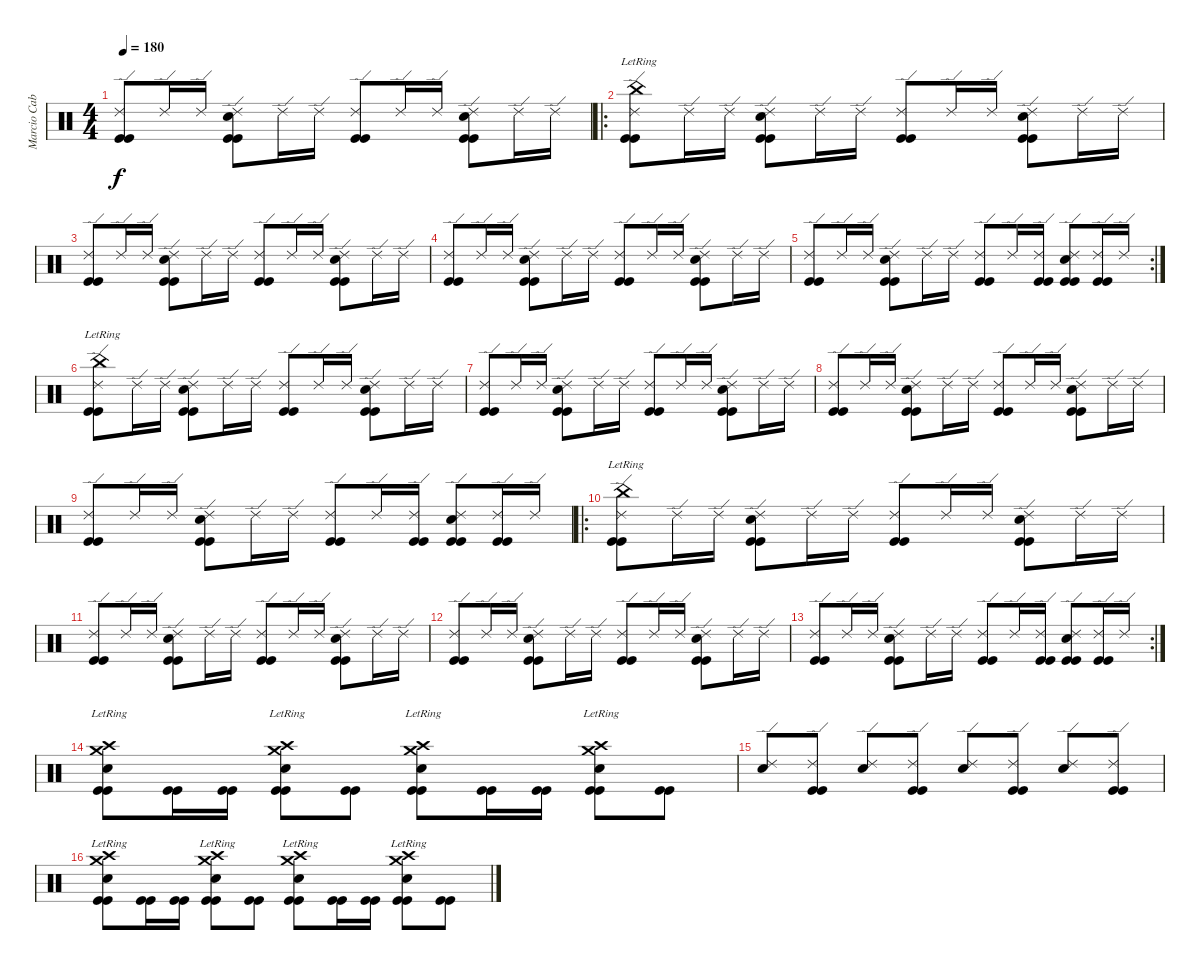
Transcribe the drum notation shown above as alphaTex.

\track ("Marcio Cabrita" "Marcio Cab") {instrument percussion}
\staff {score}
\articulation defaults
\ts (4 4)
\tempo 180
\clef neutral
\ks c
("Ride (edge) 2" "Kick (hit)" "Kick (hit)").8{dy f} "Ride (edge) 2".16 "Ride (edge) 2".16 ("Snare (hit) 2" "Ride (edge) 2" "Kick (hit)" "Kick (hit)").8 "Ride (edge) 2".16 "Ride (edge) 2".16 ("Ride (edge) 2" "Kick (hit)" "Kick (hit)").8 "Ride (edge) 2".16 "Ride (edge) 2".16 ("Snare (hit) 2" "Ride (edge) 2" "Kick (hit)" "Kick (hit)").8 "Ride (edge) 2".16 "Ride (edge) 2".16 |
\ro
("China (hit)"{lr} "Ride (edge) 2" "Kick (hit)" "Kick (hit)").8 "Ride (edge) 2".16 "Ride (edge) 2".16 ("Snare (hit) 2" "Ride (edge) 2" "Kick (hit)" "Kick (hit)").8 "Ride (edge) 2".16 "Ride (edge) 2".16 ("Ride (edge) 2" "Kick (hit)" "Kick (hit)").8 "Ride (edge) 2".16 "Ride (edge) 2".16 ("Snare (hit) 2" "Ride (edge) 2" "Kick (hit)" "Kick (hit)").8 "Ride (edge) 2".16 "Ride (edge) 2".16 |
("Ride (edge) 2" "Kick (hit)" "Kick (hit)").8 "Ride (edge) 2".16 "Ride (edge) 2".16 ("Snare (hit) 2" "Ride (edge) 2" "Kick (hit)" "Kick (hit)").8 "Ride (edge) 2".16 "Ride (edge) 2".16 ("Ride (edge) 2" "Kick (hit)" "Kick (hit)").8 "Ride (edge) 2".16 "Ride (edge) 2".16 ("Snare (hit) 2" "Ride (edge) 2" "Kick (hit)" "Kick (hit)").8 "Ride (edge) 2".16 "Ride (edge) 2".16 |
("Ride (edge) 2" "Kick (hit)" "Kick (hit)").8 "Ride (edge) 2".16 "Ride (edge) 2".16 ("Snare (hit) 2" "Ride (edge) 2" "Kick (hit)" "Kick (hit)").8 "Ride (edge) 2".16 "Ride (edge) 2".16 ("Ride (edge) 2" "Kick (hit)" "Kick (hit)").8 "Ride (edge) 2".16 "Ride (edge) 2".16 ("Snare (hit) 2" "Ride (edge) 2" "Kick (hit)" "Kick (hit)").8 "Ride (edge) 2".16 "Ride (edge) 2".16 |
\rc 2
("Ride (edge) 2" "Kick (hit)" "Kick (hit)").8 "Ride (edge) 2".16 "Ride (edge) 2".16 ("Snare (hit) 2" "Ride (edge) 2" "Kick (hit)" "Kick (hit)").8 "Ride (edge) 2".16 "Ride (edge) 2".16 ("Ride (edge) 2" "Kick (hit)" "Kick (hit)").8 "Ride (edge) 2".16 ("Ride (edge) 2" "Kick (hit)" "Kick (hit)").16 ("Snare (hit) 2" "Ride (edge) 2" "Kick (hit)" "Kick (hit)").8 ("Ride (edge) 2" "Kick (hit)" "Kick (hit)").16 "Ride (edge) 2".16 |
("China (hit)"{lr} "Ride (edge) 2" "Kick (hit)" "Kick (hit)").8 "Ride (edge) 2".16 "Ride (edge) 2".16 ("Snare (hit) 2" "Ride (edge) 2" "Kick (hit)" "Kick (hit)").8 "Ride (edge) 2".16 "Ride (edge) 2".16 ("Ride (edge) 2" "Kick (hit)" "Kick (hit)").8 "Ride (edge) 2".16 "Ride (edge) 2".16 ("Snare (hit) 2" "Ride (edge) 2" "Kick (hit)" "Kick (hit)").8 "Ride (edge) 2".16 "Ride (edge) 2".16 |
("Ride (edge) 2" "Kick (hit)" "Kick (hit)").8 "Ride (edge) 2".16 "Ride (edge) 2".16 ("Snare (hit) 2" "Ride (edge) 2" "Kick (hit)" "Kick (hit)").8 "Ride (edge) 2".16 "Ride (edge) 2".16 ("Ride (edge) 2" "Kick (hit)" "Kick (hit)").8 "Ride (edge) 2".16 "Ride (edge) 2".16 ("Snare (hit) 2" "Ride (edge) 2" "Kick (hit)" "Kick (hit)").8 "Ride (edge) 2".16 "Ride (edge) 2".16 |
("Ride (edge) 2" "Kick (hit)" "Kick (hit)").8 "Ride (edge) 2".16 "Ride (edge) 2".16 ("Snare (hit) 2" "Ride (edge) 2" "Kick (hit)" "Kick (hit)").8 "Ride (edge) 2".16 "Ride (edge) 2".16 ("Ride (edge) 2" "Kick (hit)" "Kick (hit)").8 "Ride (edge) 2".16 "Ride (edge) 2".16 ("Snare (hit) 2" "Ride (edge) 2" "Kick (hit)" "Kick (hit)").8 "Ride (edge) 2".16 "Ride (edge) 2".16 |
("Ride (edge) 2" "Kick (hit)" "Kick (hit)").8 "Ride (edge) 2".16 "Ride (edge) 2".16 ("Snare (hit) 2" "Ride (edge) 2" "Kick (hit)" "Kick (hit)").8 "Ride (edge) 2".16 "Ride (edge) 2".16 ("Ride (edge) 2" "Kick (hit)" "Kick (hit)").8 "Ride (edge) 2".16 ("Ride (edge) 2" "Kick (hit)" "Kick (hit)").16 ("Snare (hit) 2" "Ride (edge) 2" "Kick (hit)" "Kick (hit)").8 ("Ride (edge) 2" "Kick (hit)" "Kick (hit)").16 "Ride (edge) 2".16 |
\ro
("China (hit)"{lr} "Ride (edge) 2" "Kick (hit)" "Kick (hit)").8 "Ride (edge) 2".16 "Ride (edge) 2".16 ("Snare (hit) 2" "Ride (edge) 2" "Kick (hit)" "Kick (hit)").8 "Ride (edge) 2".16 "Ride (edge) 2".16 ("Ride (edge) 2" "Kick (hit)" "Kick (hit)").8 "Ride (edge) 2".16 "Ride (edge) 2".16 ("Snare (hit) 2" "Ride (edge) 2" "Kick (hit)" "Kick (hit)").8 "Ride (edge) 2".16 "Ride (edge) 2".16 |
("Ride (edge) 2" "Kick (hit)" "Kick (hit)").8 "Ride (edge) 2".16 "Ride (edge) 2".16 ("Snare (hit) 2" "Ride (edge) 2" "Kick (hit)" "Kick (hit)").8 "Ride (edge) 2".16 "Ride (edge) 2".16 ("Ride (edge) 2" "Kick (hit)" "Kick (hit)").8 "Ride (edge) 2".16 "Ride (edge) 2".16 ("Snare (hit) 2" "Ride (edge) 2" "Kick (hit)" "Kick (hit)").8 "Ride (edge) 2".16 "Ride (edge) 2".16 |
("Ride (edge) 2" "Kick (hit)" "Kick (hit)").8 "Ride (edge) 2".16 "Ride (edge) 2".16 ("Snare (hit) 2" "Ride (edge) 2" "Kick (hit)" "Kick (hit)").8 "Ride (edge) 2".16 "Ride (edge) 2".16 ("Ride (edge) 2" "Kick (hit)" "Kick (hit)").8 "Ride (edge) 2".16 "Ride (edge) 2".16 ("Snare (hit) 2" "Ride (edge) 2" "Kick (hit)" "Kick (hit)").8 "Ride (edge) 2".16 "Ride (edge) 2".16 |
\rc 2
("Ride (edge) 2" "Kick (hit)" "Kick (hit)").8 "Ride (edge) 2".16 "Ride (edge) 2".16 ("Snare (hit) 2" "Ride (edge) 2" "Kick (hit)" "Kick (hit)").8 "Ride (edge) 2".16 "Ride (edge) 2".16 ("Ride (edge) 2" "Kick (hit)" "Kick (hit)").8 "Ride (edge) 2".16 ("Ride (edge) 2" "Kick (hit)" "Kick (hit)").16 ("Snare (hit) 2" "Ride (edge) 2" "Kick (hit)" "Kick (hit)").8 ("Ride (edge) 2" "Kick (hit)" "Kick (hit)").16 "Ride (edge) 2".16 |
("Crash high (hit)"{lr} "Crash medium (hit)"{lr} "Snare (hit) 2" "Kick (hit)" "Kick (hit)").8 ("Kick (hit)" "Kick (hit)").16 ("Kick (hit)" "Kick (hit)").16 ("Crash high (hit)"{lr} "Crash medium (hit)"{lr} "Snare (hit) 2" "Kick (hit)" "Kick (hit)").8 ("Kick (hit)" "Kick (hit)").8 ("Crash high (hit)"{lr} "Crash medium (hit)"{lr} "Snare (hit) 2" "Kick (hit)" "Kick (hit)").8 ("Kick (hit)" "Kick (hit)").16 ("Kick (hit)" "Kick (hit)").16 ("Crash high (hit)"{lr} "Crash medium (hit)"{lr} "Snare (hit) 2" "Kick (hit)" "Kick (hit)").8 ("Kick (hit)" "Kick (hit)").8 |
("Snare (hit) 2" "Ride (edge) 2").8 ("Ride (edge) 2" "Kick (hit)" "Kick (hit)").8 ("Snare (hit) 2" "Ride (edge) 2").8 ("Ride (edge) 2" "Kick (hit)" "Kick (hit)").8 ("Snare (hit) 2" "Ride (edge) 2").8 ("Ride (edge) 2" "Kick (hit)" "Kick (hit)").8 ("Snare (hit) 2" "Ride (edge) 2").8 ("Ride (edge) 2" "Kick (hit)" "Kick (hit)").8 |
("Crash high (hit)"{lr} "Crash medium (hit)"{lr} "Snare (hit) 2" "Kick (hit)" "Kick (hit)").8 ("Kick (hit)" "Kick (hit)").16 ("Kick (hit)" "Kick (hit)").16 ("Crash high (hit)"{lr} "Crash medium (hit)"{lr} "Snare (hit) 2" "Kick (hit)" "Kick (hit)").8 ("Kick (hit)" "Kick (hit)").8 ("Crash high (hit)"{lr} "Crash medium (hit)"{lr} "Snare (hit) 2" "Kick (hit)" "Kick (hit)").8 ("Kick (hit)" "Kick (hit)").16 ("Kick (hit)" "Kick (hit)").16 ("Crash high (hit)"{lr} "Crash medium (hit)"{lr} "Snare (hit) 2" "Kick (hit)" "Kick (hit)").8 ("Kick (hit)" "Kick (hit)").8
